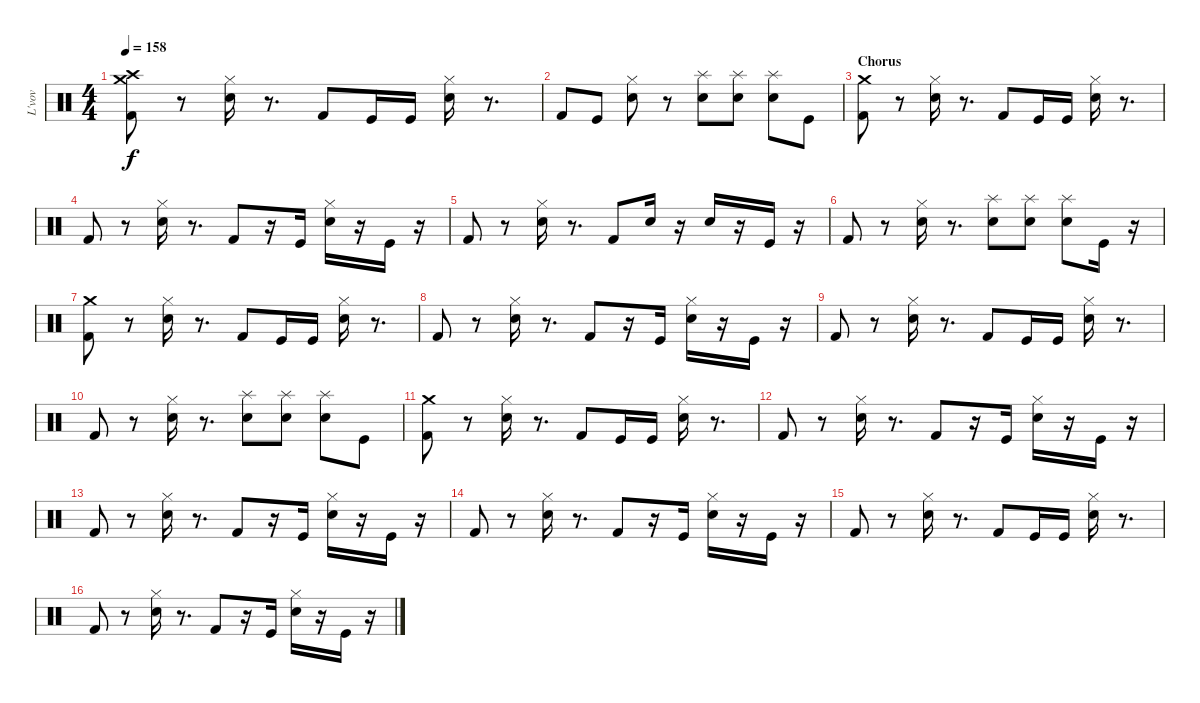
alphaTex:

\track ("L'vov " "L'vov ") {instrument percussion}
\staff {score}
\articulation defaults
\ts (4 4)
\tempo 158
\clef neutral
\ks c
("Crash high (hit)" "Kick (hit) 2" "Crash medium (hit)").8{dy f} r.8 ("Snare (hit) 2" "Hi-Hat (closed)").16 r.8{d} "Kick (hit) 2".8 "Kick (hit)".16 "Kick (hit)".16 ("Snare (hit) 2" "Hi-Hat (closed)").16 r.8{d} |
"Kick (hit) 2".8 "Kick (hit)".8 ("Snare (hit) 2" "Hi-Hat (closed)").8 r.8 ("Splash (hit)" "Electric Snare (hit)").8 ("Splash (hit)" "Electric Snare (hit)").8 ("Splash (hit)" "Electric Snare (hit)").8 "Kick (hit)".8 |
\section ("" "Chorus")
("Crash medium (hit)" "Kick (hit) 2").8 r.8 ("Snare (hit) 2" "Hi-Hat (closed)").16 r.8{d} "Kick (hit) 2".8 "Kick (hit)".16 "Kick (hit)".16 ("Snare (hit) 2" "Hi-Hat (closed)").16 r.8{d} |
"Kick (hit) 2".8 r.8 ("Snare (hit) 2" "Hi-Hat (closed)").16 r.8{d} "Kick (hit) 2".8 r.16 "Kick (hit)".16 ("Electric Snare (hit)" "Hi-Hat (closed)").16 r.16 "Kick (hit)".16 r.16 |
"Kick (hit) 2".8 r.8 ("Snare (hit) 2" "Hi-Hat (closed)").16 r.8{d} "Kick (hit) 2".8 "Electric Snare (hit)".16 r.16 "Electric Snare (hit)".16 r.16 "Kick (hit)".16 r.16 |
"Kick (hit) 2".8 r.8 ("Snare (hit) 2" "Hi-Hat (closed)").16 r.8{d} ("Splash (hit)" "Electric Snare (hit)").8 ("Splash (hit)" "Electric Snare (hit)").8 ("Splash (hit)" "Electric Snare (hit)").8 "Kick (hit)".16 r.16 |
("Crash medium (hit)" "Kick (hit) 2").8 r.8 ("Snare (hit) 2" "Hi-Hat (closed)").16 r.8{d} "Kick (hit) 2".8 "Kick (hit)".16 "Kick (hit)".16 ("Snare (hit) 2" "Hi-Hat (closed)").16 r.8{d} |
"Kick (hit) 2".8 r.8 ("Snare (hit) 2" "Hi-Hat (closed)").16 r.8{d} "Kick (hit) 2".8 r.16 "Kick (hit)".16 ("Electric Snare (hit)" "Hi-Hat (closed)").16 r.16 "Kick (hit)".16 r.16 |
"Kick (hit) 2".8 r.8 ("Snare (hit) 2" "Hi-Hat (closed)").16 r.8{d} "Kick (hit) 2".8 "Kick (hit)".16 "Kick (hit)".16 ("Snare (hit) 2" "Hi-Hat (closed)").16 r.8{d} |
"Kick (hit) 2".8 r.8 ("Snare (hit) 2" "Hi-Hat (closed)").16 r.8{d} ("Splash (hit)" "Electric Snare (hit)").8 ("Splash (hit)" "Electric Snare (hit)").8 ("Splash (hit)" "Electric Snare (hit)").8 "Kick (hit)".8 |
("Crash medium (hit)" "Kick (hit) 2").8 r.8 ("Snare (hit) 2" "Hi-Hat (closed)").16 r.8{d} "Kick (hit) 2".8 "Kick (hit)".16 "Kick (hit)".16 ("Snare (hit) 2" "Hi-Hat (closed)").16 r.8{d} |
"Kick (hit) 2".8 r.8 ("Snare (hit) 2" "Hi-Hat (closed)").16 r.8{d} "Kick (hit) 2".8 r.16 "Kick (hit)".16 ("Electric Snare (hit)" "Hi-Hat (closed)").16 r.16 "Kick (hit)".16 r.16 |
"Kick (hit) 2".8 r.8 ("Snare (hit) 2" "Hi-Hat (closed)").16 r.8{d} "Kick (hit) 2".8 r.16 "Kick (hit)".16 ("Snare (hit) 2" "Hi-Hat (closed)").16 r.16 "Kick (hit)".16 r.16 |
"Kick (hit) 2".8 r.8 ("Snare (hit) 2" "Hi-Hat (closed)").16 r.8{d} "Kick (hit) 2".8 r.16 "Kick (hit)".16 ("Electric Snare (hit)" "Hi-Hat (closed)").16 r.16 "Kick (hit)".16 r.16 |
"Kick (hit) 2".8 r.8 ("Snare (hit) 2" "Hi-Hat (closed)").16 r.8{d} "Kick (hit) 2".8 "Kick (hit)".16 "Kick (hit)".16 ("Snare (hit) 2" "Hi-Hat (closed)").16 r.8{d} |
"Kick (hit) 2".8 r.8 ("Snare (hit) 2" "Hi-Hat (closed)").16 r.8{d} "Kick (hit) 2".8 r.16 "Kick (hit)".16 ("Electric Snare (hit)" "Hi-Hat (closed)").16 r.16 "Kick (hit)".16 r.16
